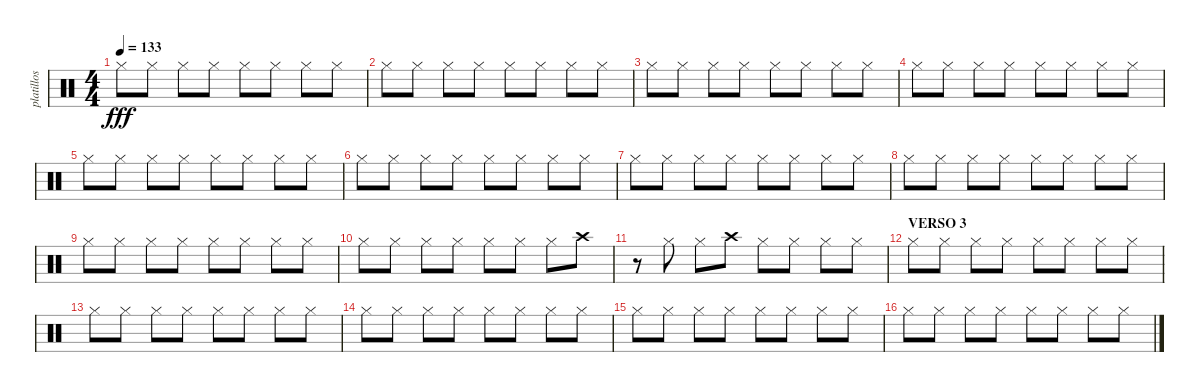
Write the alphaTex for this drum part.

\track ("platillos" "platillos") {instrument percussion}
\staff {score}
\articulation defaults
\ts (4 4)
\tempo 133
\clef neutral
\ks c "Hi-Hat (closed)".8{dy fff} "Hi-Hat (closed)".8 "Hi-Hat (closed)".8 "Hi-Hat (closed)".8 "Hi-Hat (closed)".8 "Hi-Hat (closed)".8 "Hi-Hat (closed)".8 "Hi-Hat (closed)".8
|
"Hi-Hat (closed)".8 "Hi-Hat (closed)".8 "Hi-Hat (closed)".8 "Hi-Hat (closed)".8 "Hi-Hat (closed)".8 "Hi-Hat (closed)".8 "Hi-Hat (closed)".8 "Hi-Hat (closed)".8 |
"Hi-Hat (closed)".8 "Hi-Hat (closed)".8 "Hi-Hat (closed)".8 "Hi-Hat (closed)".8 "Hi-Hat (closed)".8 "Hi-Hat (closed)".8 "Hi-Hat (closed)".8 "Hi-Hat (closed)".8 |
"Hi-Hat (closed)".8 "Hi-Hat (closed)".8 "Hi-Hat (closed)".8 "Hi-Hat (closed)".8 "Hi-Hat (closed)".8 "Hi-Hat (closed)".8 "Hi-Hat (closed)".8 "Hi-Hat (closed)".8 |
"Hi-Hat (closed)".8 "Hi-Hat (closed)".8 "Hi-Hat (closed)".8 "Hi-Hat (closed)".8 "Hi-Hat (closed)".8 "Hi-Hat (closed)".8 "Hi-Hat (closed)".8 "Hi-Hat (closed)".8 |
"Hi-Hat (closed)".8 "Hi-Hat (closed)".8 "Hi-Hat (closed)".8 "Hi-Hat (closed)".8 "Hi-Hat (closed)".8 "Hi-Hat (closed)".8 "Hi-Hat (closed)".8 "Hi-Hat (closed)".8 |
"Hi-Hat (closed)".8 "Hi-Hat (closed)".8 "Hi-Hat (closed)".8 "Hi-Hat (closed)".8 "Hi-Hat (closed)".8 "Hi-Hat (closed)".8 "Hi-Hat (closed)".8 "Hi-Hat (closed)".8 |
"Hi-Hat (closed)".8 "Hi-Hat (closed)".8 "Hi-Hat (closed)".8 "Hi-Hat (closed)".8 "Hi-Hat (closed)".8 "Hi-Hat (closed)".8 "Hi-Hat (closed)".8 "Hi-Hat (closed)".8 |
"Hi-Hat (closed)".8 "Hi-Hat (closed)".8 "Hi-Hat (closed)".8 "Hi-Hat (closed)".8 "Hi-Hat (closed)".8 "Hi-Hat (closed)".8 "Hi-Hat (closed)".8 "Hi-Hat (closed)".8 |
"Hi-Hat (closed)".8 "Hi-Hat (closed)".8 "Hi-Hat (closed)".8 "Hi-Hat (closed)".8 "Hi-Hat (closed)".8 "Hi-Hat (closed)".8 "Hi-Hat (closed)".8 "Crash high (hit)".8 |
r.8 "Hi-Hat (closed)".8 "Hi-Hat (closed)".8 "Crash high (hit)".8 "Hi-Hat (closed)".8 "Hi-Hat (closed)".8 "Hi-Hat (closed)".8 "Hi-Hat (closed)".8 |
\section ("" "VERSO 3")
"Hi-Hat (closed)".8 "Hi-Hat (closed)".8 "Hi-Hat (closed)".8 "Hi-Hat (closed)".8 "Hi-Hat (closed)".8 "Hi-Hat (closed)".8 "Hi-Hat (closed)".8 "Hi-Hat (closed)".8 |
"Hi-Hat (closed)".8 "Hi-Hat (closed)".8 "Hi-Hat (closed)".8 "Hi-Hat (closed)".8 "Hi-Hat (closed)".8 "Hi-Hat (closed)".8 "Hi-Hat (closed)".8 "Hi-Hat (closed)".8 |
"Hi-Hat (closed)".8 "Hi-Hat (closed)".8 "Hi-Hat (closed)".8 "Hi-Hat (closed)".8 "Hi-Hat (closed)".8 "Hi-Hat (closed)".8 "Hi-Hat (closed)".8 "Hi-Hat (closed)".8 |
"Hi-Hat (closed)".8 "Hi-Hat (closed)".8 "Hi-Hat (closed)".8 "Hi-Hat (closed)".8 "Hi-Hat (closed)".8 "Hi-Hat (closed)".8 "Hi-Hat (closed)".8 "Hi-Hat (closed)".8 |
"Hi-Hat (closed)".8 "Hi-Hat (closed)".8 "Hi-Hat (closed)".8 "Hi-Hat (closed)".8 "Hi-Hat (closed)".8 "Hi-Hat (closed)".8 "Hi-Hat (closed)".8 "Hi-Hat (closed)".8
